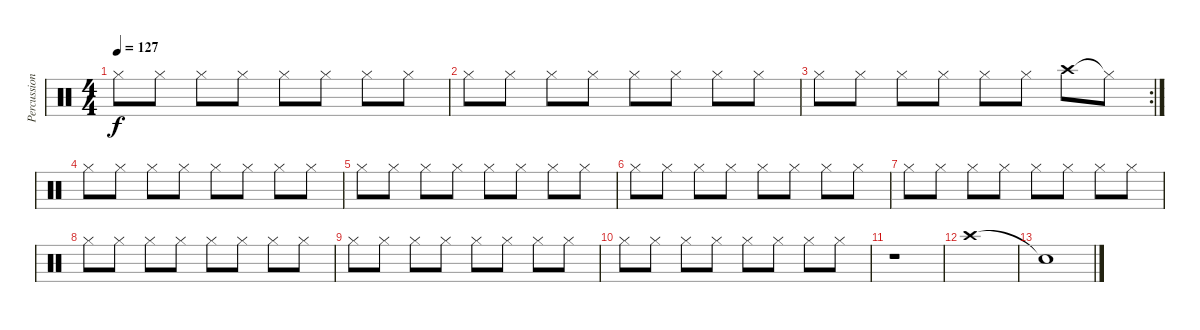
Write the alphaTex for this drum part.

\track ("Percussions" "Percussion") {instrument percussion}
\staff {score}
\articulation defaults
\ts (4 4)
\tempo 127
\clef neutral
\ks c "Hi-Hat (closed)".8{dy f} "Hi-Hat (closed)".8 "Hi-Hat (closed)".8 "Hi-Hat (closed)".8 "Hi-Hat (closed)".8 "Hi-Hat (closed)".8 "Hi-Hat (closed)".8 "Hi-Hat (closed)".8
|
"Hi-Hat (closed)".8 "Hi-Hat (closed)".8 "Hi-Hat (closed)".8 "Hi-Hat (closed)".8 "Hi-Hat (closed)".8 "Hi-Hat (closed)".8 "Hi-Hat (closed)".8 "Hi-Hat (closed)".8 |
\rc 2 "Hi-Hat (closed)".8 "Hi-Hat (closed)".8 "Hi-Hat (closed)".8 "Hi-Hat (closed)".8 "Hi-Hat (closed)".8 "Hi-Hat (closed)".8 "Crash high (hit)".8 "Hi-Hat (closed)"{t}.8
|
"Hi-Hat (closed)".8 "Hi-Hat (closed)".8 "Hi-Hat (closed)".8 "Hi-Hat (closed)".8 "Hi-Hat (closed)".8 "Hi-Hat (closed)".8 "Hi-Hat (closed)".8 "Hi-Hat (closed)".8 |
"Hi-Hat (closed)".8 "Hi-Hat (closed)".8 "Hi-Hat (closed)".8 "Hi-Hat (closed)".8 "Hi-Hat (closed)".8 "Hi-Hat (closed)".8 "Hi-Hat (closed)".8 "Hi-Hat (closed)".8 |
"Hi-Hat (closed)".8 "Hi-Hat (closed)".8 "Hi-Hat (closed)".8 "Hi-Hat (closed)".8 "Hi-Hat (closed)".8 "Hi-Hat (closed)".8 "Hi-Hat (closed)".8 "Hi-Hat (closed)".8 |
"Hi-Hat (closed)".8 "Hi-Hat (closed)".8 "Hi-Hat (closed)".8 "Hi-Hat (closed)".8 "Hi-Hat (closed)".8 "Hi-Hat (closed)".8 "Hi-Hat (closed)".8 "Hi-Hat (closed)".8 |
"Hi-Hat (closed)".8 "Hi-Hat (closed)".8 "Hi-Hat (closed)".8 "Hi-Hat (closed)".8 "Hi-Hat (closed)".8 "Hi-Hat (closed)".8 "Hi-Hat (closed)".8 "Hi-Hat (closed)".8 |
"Hi-Hat (closed)".8 "Hi-Hat (closed)".8 "Hi-Hat (closed)".8 "Hi-Hat (closed)".8 "Hi-Hat (closed)".8 "Hi-Hat (closed)".8 "Hi-Hat (closed)".8 "Hi-Hat (closed)".8 |
"Hi-Hat (closed)".8 "Hi-Hat (closed)".8 "Hi-Hat (closed)".8 "Hi-Hat (closed)".8 "Hi-Hat (closed)".8 "Hi-Hat (closed)".8 "Hi-Hat (closed)".8 "Hi-Hat (closed)".8 |
r.1 |
"Crash high (hit)".1 |
"Snare (hit)"{t}.1
